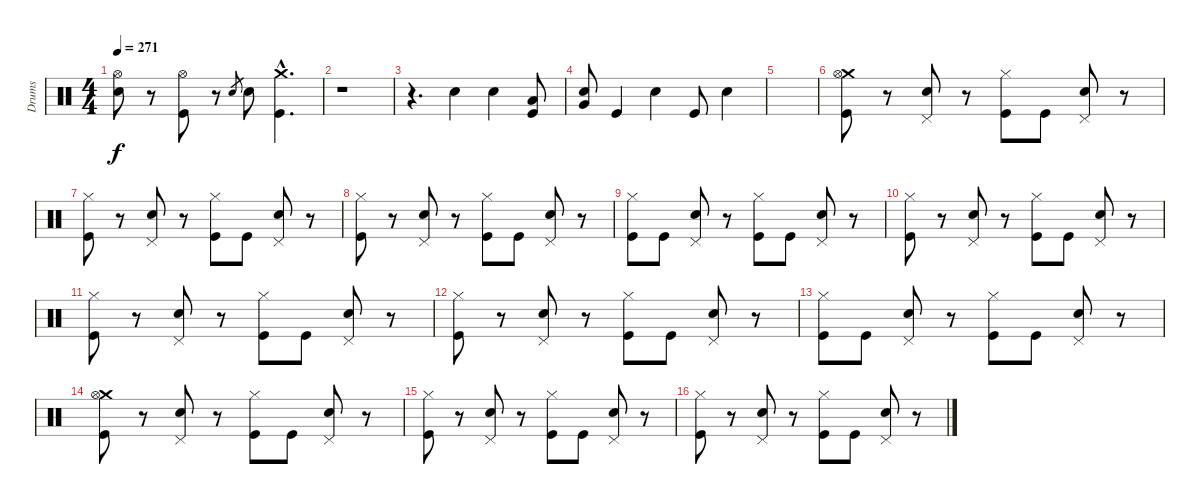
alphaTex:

\track ("Drums" "Drums") {instrument percussion}
\staff {score}
\articulation defaults
\ts (4 4)
\tempo 271
\clef neutral
\ks c
("Hi-Hat (open)" "Electric Snare (hit)").8{dy f} r.8 ("Hi-Hat (open)" "Kick (hit)").8 r.8 "Electric Snare (hit)".8{gr} "Electric Snare (hit)".8 ("Crash medium (hit)"{hac} "Kick (hit)"{hac}).4{d} |
r.1 |
r.4{d} "Electric Snare (hit)".4 "Electric Snare (hit)".4 ("Low Tom (hit)" "Kick (hit)").8 |
("Very Low Tom (hit)" "Electric Snare (hit)").8 "Kick (hit)".4 "Electric Snare (hit)".4 "Kick (hit)".8 "Electric Snare (hit)".4 |
|
("Crash medium (hit)" "Hi-Hat (open)" "Kick (hit)").8 r.8 ("Pedal Hi-Hat (hit)" "Electric Snare (hit)").8 r.8 ("Hi-Hat (closed)" "Kick (hit)").8 "Kick (hit)".8 ("Pedal Hi-Hat (hit)" "Electric Snare (hit)").8 r.8 |
("Hi-Hat (closed)" "Kick (hit)").8 r.8 ("Pedal Hi-Hat (hit)" "Electric Snare (hit)").8 r.8 ("Hi-Hat (closed)" "Kick (hit)").8 "Kick (hit)".8 ("Pedal Hi-Hat (hit)" "Electric Snare (hit)").8 r.8 |
("Hi-Hat (closed)" "Kick (hit)").8 r.8 ("Pedal Hi-Hat (hit)" "Electric Snare (hit)").8 r.8 ("Hi-Hat (closed)" "Kick (hit)").8 "Kick (hit)".8 ("Pedal Hi-Hat (hit)" "Electric Snare (hit)").8 r.8 |
("Hi-Hat (closed)" "Kick (hit)").8 "Kick (hit)".8 ("Pedal Hi-Hat (hit)" "Electric Snare (hit)").8 r.8 ("Hi-Hat (closed)" "Kick (hit)").8 "Kick (hit)".8 ("Pedal Hi-Hat (hit)" "Electric Snare (hit)").8 r.8 |
("Hi-Hat (closed)" "Kick (hit)").8 r.8 ("Pedal Hi-Hat (hit)" "Electric Snare (hit)").8 r.8 ("Hi-Hat (closed)" "Kick (hit)").8 "Kick (hit)".8 ("Pedal Hi-Hat (hit)" "Electric Snare (hit)").8 r.8 |
("Hi-Hat (closed)" "Kick (hit)").8 r.8 ("Pedal Hi-Hat (hit)" "Electric Snare (hit)").8 r.8 ("Hi-Hat (closed)" "Kick (hit)").8 "Kick (hit)".8 ("Pedal Hi-Hat (hit)" "Electric Snare (hit)").8 r.8 |
("Hi-Hat (closed)" "Kick (hit)").8 r.8 ("Pedal Hi-Hat (hit)" "Electric Snare (hit)").8 r.8 ("Hi-Hat (closed)" "Kick (hit)").8 "Kick (hit)".8 ("Pedal Hi-Hat (hit)" "Electric Snare (hit)").8 r.8 |
("Hi-Hat (closed)" "Kick (hit)").8 "Kick (hit)".8 ("Pedal Hi-Hat (hit)" "Electric Snare (hit)").8 r.8 ("Hi-Hat (closed)" "Kick (hit)").8 "Kick (hit)".8 ("Pedal Hi-Hat (hit)" "Electric Snare (hit)").8 r.8 |
("Crash medium (hit)" "Hi-Hat (open)" "Kick (hit)").8 r.8 ("Pedal Hi-Hat (hit)" "Electric Snare (hit)").8 r.8 ("Hi-Hat (closed)" "Kick (hit)").8 "Kick (hit)".8 ("Pedal Hi-Hat (hit)" "Electric Snare (hit)").8 r.8 |
("Hi-Hat (closed)" "Kick (hit)").8 r.8 ("Pedal Hi-Hat (hit)" "Electric Snare (hit)").8 r.8 ("Hi-Hat (closed)" "Kick (hit)").8 "Kick (hit)".8 ("Pedal Hi-Hat (hit)" "Electric Snare (hit)").8 r.8 |
("Hi-Hat (closed)" "Kick (hit)").8 r.8 ("Pedal Hi-Hat (hit)" "Electric Snare (hit)").8 r.8 ("Hi-Hat (closed)" "Kick (hit)").8 "Kick (hit)".8 ("Pedal Hi-Hat (hit)" "Electric Snare (hit)").8 r.8
